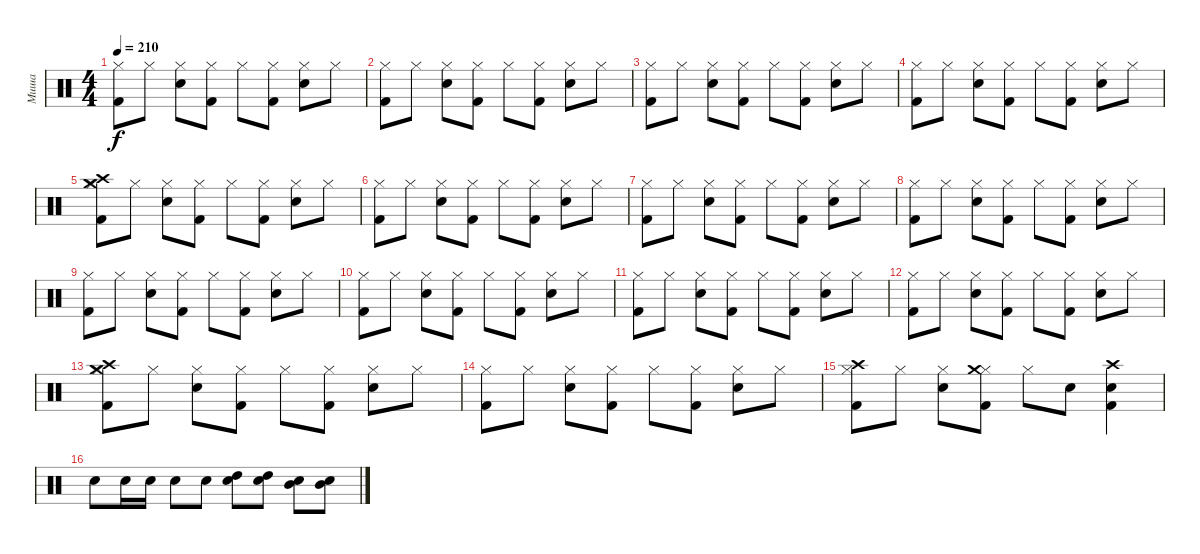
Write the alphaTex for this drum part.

\track ("Миша" "Миша") {instrument percussion}
\staff {score}
\articulation defaults
\ts (4 4)
\tempo 210
\clef neutral
\ks c
("Hi-Hat (closed)" "Kick (hit) 2").8{dy f} "Hi-Hat (closed)".8 ("Hi-Hat (closed)" "Snare (hit) 2").8 ("Hi-Hat (closed)" "Kick (hit) 2").8 "Hi-Hat (closed)".8 ("Hi-Hat (closed)" "Kick (hit) 2").8 ("Hi-Hat (closed)" "Snare (hit) 2").8 "Hi-Hat (closed)".8 |
("Hi-Hat (closed)" "Kick (hit) 2").8 "Hi-Hat (closed)".8 ("Hi-Hat (closed)" "Snare (hit) 2").8 ("Hi-Hat (closed)" "Kick (hit) 2").8 "Hi-Hat (closed)".8 ("Hi-Hat (closed)" "Kick (hit) 2").8 ("Hi-Hat (closed)" "Snare (hit) 2").8 "Hi-Hat (closed)".8 |
("Hi-Hat (closed)" "Kick (hit) 2").8 "Hi-Hat (closed)".8 ("Hi-Hat (closed)" "Snare (hit) 2").8 ("Hi-Hat (closed)" "Kick (hit) 2").8 "Hi-Hat (closed)".8 ("Hi-Hat (closed)" "Kick (hit) 2").8 ("Hi-Hat (closed)" "Snare (hit) 2").8 "Hi-Hat (closed)".8 |
("Hi-Hat (closed)" "Kick (hit) 2").8 "Hi-Hat (closed)".8 ("Hi-Hat (closed)" "Snare (hit) 2").8 ("Hi-Hat (closed)" "Kick (hit) 2").8 "Hi-Hat (closed)".8 ("Hi-Hat (closed)" "Kick (hit) 2").8 ("Hi-Hat (closed)" "Snare (hit) 2").8 "Hi-Hat (closed)".8 |
("Hi-Hat (closed)" "Kick (hit) 2" "Crash medium (hit)" "Crash high (hit)").8 "Hi-Hat (closed)".8 ("Hi-Hat (closed)" "Snare (hit) 2").8 ("Hi-Hat (closed)" "Kick (hit) 2").8 "Hi-Hat (closed)".8 ("Hi-Hat (closed)" "Kick (hit) 2").8 ("Hi-Hat (closed)" "Snare (hit) 2").8 "Hi-Hat (closed)".8 |
("Hi-Hat (closed)" "Kick (hit) 2").8 "Hi-Hat (closed)".8 ("Hi-Hat (closed)" "Snare (hit) 2").8 ("Hi-Hat (closed)" "Kick (hit) 2").8 "Hi-Hat (closed)".8 ("Hi-Hat (closed)" "Kick (hit) 2").8 ("Hi-Hat (closed)" "Snare (hit) 2").8 "Hi-Hat (closed)".8 |
("Hi-Hat (closed)" "Kick (hit) 2").8 "Hi-Hat (closed)".8 ("Hi-Hat (closed)" "Snare (hit) 2").8 ("Hi-Hat (closed)" "Kick (hit) 2").8 "Hi-Hat (closed)".8 ("Hi-Hat (closed)" "Kick (hit) 2").8 ("Hi-Hat (closed)" "Snare (hit) 2").8 "Hi-Hat (closed)".8 |
("Hi-Hat (closed)" "Kick (hit) 2").8 "Hi-Hat (closed)".8 ("Hi-Hat (closed)" "Snare (hit) 2").8 ("Hi-Hat (closed)" "Kick (hit) 2").8 "Hi-Hat (closed)".8 ("Hi-Hat (closed)" "Kick (hit) 2").8 ("Hi-Hat (closed)" "Snare (hit) 2").8 "Hi-Hat (closed)".8 |
("Hi-Hat (closed)" "Kick (hit) 2").8 "Hi-Hat (closed)".8 ("Hi-Hat (closed)" "Snare (hit) 2").8 ("Hi-Hat (closed)" "Kick (hit) 2").8 "Hi-Hat (closed)".8 ("Hi-Hat (closed)" "Kick (hit) 2").8 ("Hi-Hat (closed)" "Snare (hit) 2").8 "Hi-Hat (closed)".8 |
("Hi-Hat (closed)" "Kick (hit) 2").8 "Hi-Hat (closed)".8 ("Hi-Hat (closed)" "Snare (hit) 2").8 ("Hi-Hat (closed)" "Kick (hit) 2").8 "Hi-Hat (closed)".8 ("Hi-Hat (closed)" "Kick (hit) 2").8 ("Hi-Hat (closed)" "Snare (hit) 2").8 "Hi-Hat (closed)".8 |
("Hi-Hat (closed)" "Kick (hit) 2").8 "Hi-Hat (closed)".8 ("Hi-Hat (closed)" "Snare (hit) 2").8 ("Hi-Hat (closed)" "Kick (hit) 2").8 "Hi-Hat (closed)".8 ("Hi-Hat (closed)" "Kick (hit) 2").8 ("Hi-Hat (closed)" "Snare (hit) 2").8 "Hi-Hat (closed)".8 |
("Hi-Hat (closed)" "Kick (hit) 2").8 "Hi-Hat (closed)".8 ("Hi-Hat (closed)" "Snare (hit) 2").8 ("Hi-Hat (closed)" "Kick (hit) 2").8 "Hi-Hat (closed)".8 ("Hi-Hat (closed)" "Kick (hit) 2").8 ("Hi-Hat (closed)" "Snare (hit) 2").8 "Hi-Hat (closed)".8 |
("Hi-Hat (closed)" "Kick (hit) 2" "Crash medium (hit)" "Crash high (hit)").8 "Hi-Hat (closed)".8 ("Hi-Hat (closed)" "Snare (hit) 2").8 ("Hi-Hat (closed)" "Kick (hit) 2").8 "Hi-Hat (closed)".8 ("Hi-Hat (closed)" "Kick (hit) 2").8 ("Hi-Hat (closed)" "Snare (hit) 2").8 "Hi-Hat (closed)".8 |
("Hi-Hat (closed)" "Kick (hit) 2").8 "Hi-Hat (closed)".8 ("Hi-Hat (closed)" "Snare (hit) 2").8 ("Hi-Hat (closed)" "Kick (hit) 2").8 "Hi-Hat (closed)".8 ("Hi-Hat (closed)" "Kick (hit) 2").8 ("Hi-Hat (closed)" "Snare (hit) 2").8 "Hi-Hat (closed)".8 |
("Hi-Hat (closed)" "Kick (hit) 2" "Crash high (hit)").8 "Hi-Hat (closed)".8 ("Hi-Hat (closed)" "Snare (hit) 2").8 ("Hi-Hat (closed)" "Kick (hit) 2" "Crash medium (hit)").8 "Hi-Hat (closed)".8 "Snare (hit) 2".8 ("Kick (hit) 2" "Snare (hit) 2" "Crash high (hit)").4 |
"Snare (hit) 2".8 "Snare (hit) 2".16 "Snare (hit) 2".16 "Snare (hit) 2".8 "Snare (hit) 2".8 ("Snare (hit) 2" "High Tom (hit)").8 ("Snare (hit) 2" "High Tom (hit)").8 ("Snare (hit) 2" "Mid Tom (hit)").8 ("Snare (hit) 2" "Mid Tom (hit)").8
